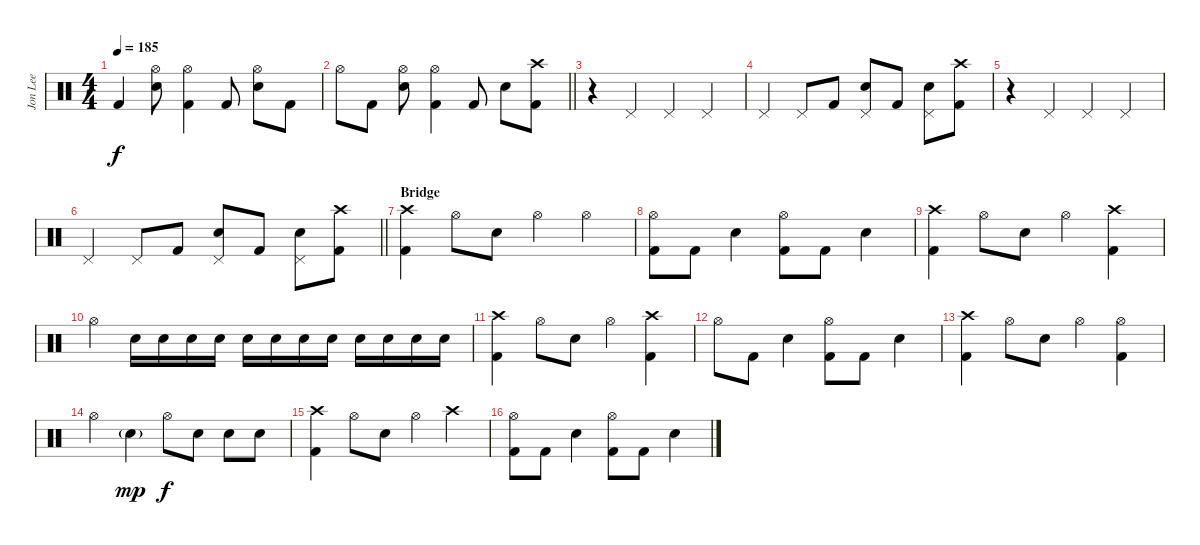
\track ("Jon Lee" "Jon Lee") {instrument percussion bank 10}
\staff {score}
\articulation defaults
\ts (4 4)
\tempo 185
\clef neutral
\ks c "Kick (hit) 2".4{dy f}
("Snare (hit) 2" "Hi-Hat (open)").8 ("Kick (hit) 2" "Hi-Hat (open)").4 "Kick (hit) 2".8 ("Snare (hit) 2" "Hi-Hat (open)").8 "Kick (hit) 2".8 |
\barLineRight lightlight "Hi-Hat (open)".8 "Kick (hit) 2".8
("Snare (hit) 2" "Hi-Hat (open)").8 ("Kick (hit) 2" "Hi-Hat (open)").4 "Kick (hit) 2".8 "Snare (hit) 2".8 ("Kick (hit) 2" "Crash high (hit)").8 |
r.4 "Pedal Hi-Hat (hit)".4 "Pedal Hi-Hat (hit)".4 "Pedal Hi-Hat (hit)".4 |
"Pedal Hi-Hat (hit)".4 "Pedal Hi-Hat (hit)".8 "Kick (hit) 2".8 ("Pedal Hi-Hat (hit)" "Snare (hit) 2").8 "Kick (hit) 2".8 ("Pedal Hi-Hat (hit)" "Snare (hit) 2").8 ("Kick (hit) 2" "Crash high (hit)").8 |
r.4 "Pedal Hi-Hat (hit)".4 "Pedal Hi-Hat (hit)".4 "Pedal Hi-Hat (hit)".4 |
\barLineRight lightlight "Pedal Hi-Hat (hit)".4 "Pedal Hi-Hat (hit)".8 "Kick (hit) 2".8
("Pedal Hi-Hat (hit)" "Snare (hit) 2").8 "Kick (hit) 2".8 ("Pedal Hi-Hat (hit)" "Snare (hit) 2").8 ("Kick (hit) 2" "Crash high (hit)").8 |
\section ("" "Bridge")
("Crash high (hit)" "Kick (hit) 2").4 "Hi-Hat (open)".8 "Snare (hit) 2".8 "Hi-Hat (open)".4 "Hi-Hat (open)".4 |
("Hi-Hat (open)" "Kick (hit) 2").8 "Kick (hit) 2".8 "Snare (hit) 2".4 ("Kick (hit) 2" "Hi-Hat (open)").8 "Kick (hit) 2".8 "Snare (hit) 2".4 |
("Crash high (hit)" "Kick (hit) 2").4 "Hi-Hat (open)".8 "Snare (hit) 2".8 "Hi-Hat (open)".4 ("Kick (hit) 2" "Crash high (hit)").4 |
"Hi-Hat (open)".4 "Snare (hit) 2".16 "Snare (hit) 2".16 "Snare (hit) 2".16 "Snare (hit) 2".16 "Snare (hit) 2".16 "Snare (hit) 2".16 "Snare (hit) 2".16 "Snare (hit) 2".16 "Snare (hit) 2".16 "Snare (hit) 2".16 "Snare (hit) 2".16 "Snare (hit) 2".16 |
("Crash high (hit)" "Kick (hit) 2").4 "Hi-Hat (open)".8 "Snare (hit) 2".8 "Hi-Hat (open)".4 ("Kick (hit) 2" "Crash high (hit)").4 |
"Hi-Hat (open)".8 "Kick (hit) 2".8 "Snare (hit) 2".4 ("Kick (hit) 2" "Hi-Hat (open)").8 "Kick (hit) 2".8 "Snare (hit) 2".4 |
("Crash high (hit)" "Kick (hit) 2").4 "Hi-Hat (open)".8 "Snare (hit) 2".8 "Hi-Hat (open)".4 ("Kick (hit) 2" "Hi-Hat (open)").4 |
"Hi-Hat (open)".4 "Snare (hit) 2"{g}.4{dy mp} "Hi-Hat (open)".8{dy f} "Snare (hit) 2".8 "Snare (hit) 2".8 "Snare (hit) 2".8 |
("Kick (hit) 2" "Crash high (hit)").4 "Hi-Hat (open)".8 "Snare (hit) 2".8 "Hi-Hat (open)".4 "Crash high (hit)".4 |
("Kick (hit) 2" "Hi-Hat (open)").8 "Kick (hit) 2".8 "Snare (hit) 2".4 ("Hi-Hat (open)" "Kick (hit) 2").8 "Kick (hit) 2".8 "Snare (hit) 2".4
